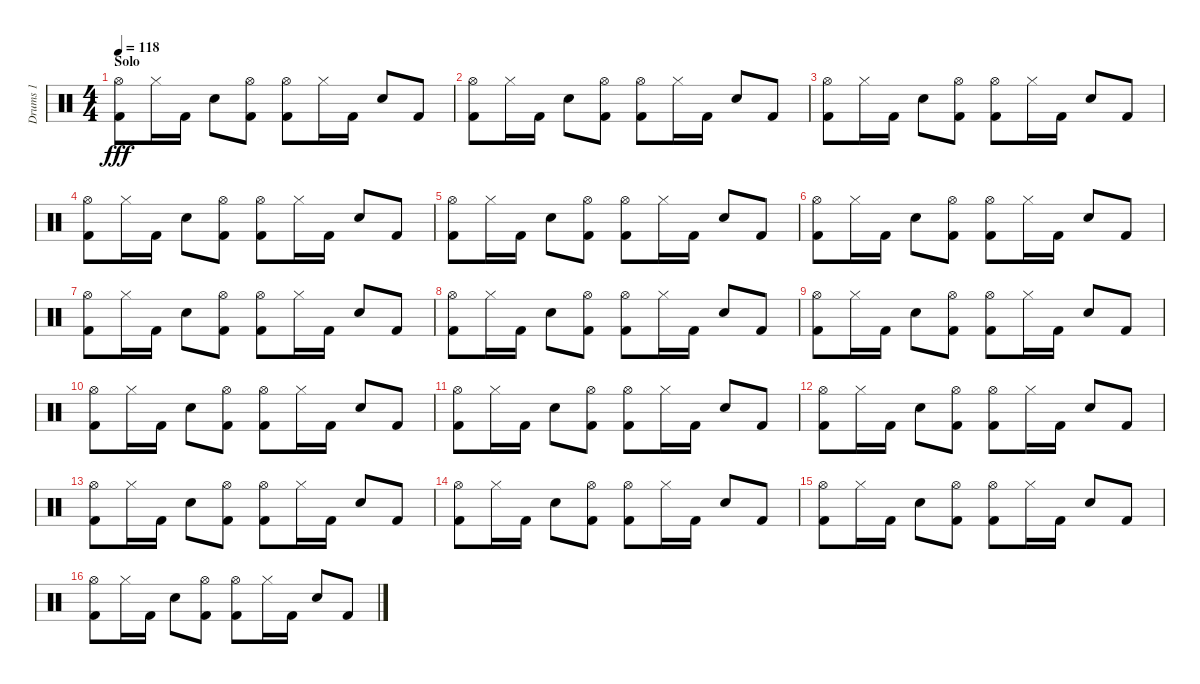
\track ("Drums 1" "Drums 1") {instrument percussion}
\staff {score}
\articulation defaults
\ts (4 4)
\section ("" "Solo")
\tempo 118
\clef neutral
\ks c
("Hi-Hat (open)" "Kick (hit) 2").8{dy fff volume 12 balance 8} "Hi-Hat (closed)".16 "Kick (hit) 2".16 "Electric Snare (hit)".8 ("Hi-Hat (open)" "Kick (hit) 2").8 ("Hi-Hat (open)" "Kick (hit) 2").8 "Hi-Hat (closed)".16 "Kick (hit) 2".16 "Electric Snare (hit)".8 "Kick (hit) 2".8 |
("Hi-Hat (open)" "Kick (hit) 2").8 "Hi-Hat (closed)".16 "Kick (hit) 2".16 "Electric Snare (hit)".8 ("Hi-Hat (open)" "Kick (hit) 2").8 ("Hi-Hat (open)" "Kick (hit) 2").8 "Hi-Hat (closed)".16 "Kick (hit) 2".16 "Electric Snare (hit)".8 "Kick (hit) 2".8 |
("Hi-Hat (open)" "Kick (hit) 2").8 "Hi-Hat (closed)".16 "Kick (hit) 2".16 "Electric Snare (hit)".8 ("Hi-Hat (open)" "Kick (hit) 2").8 ("Hi-Hat (open)" "Kick (hit) 2").8 "Hi-Hat (closed)".16 "Kick (hit) 2".16 "Electric Snare (hit)".8 "Kick (hit) 2".8 |
("Hi-Hat (open)" "Kick (hit) 2").8 "Hi-Hat (closed)".16 "Kick (hit) 2".16 "Electric Snare (hit)".8 ("Hi-Hat (open)" "Kick (hit) 2").8 ("Hi-Hat (open)" "Kick (hit) 2").8 "Hi-Hat (closed)".16 "Kick (hit) 2".16 "Electric Snare (hit)".8 "Kick (hit) 2".8 |
("Hi-Hat (open)" "Kick (hit) 2").8 "Hi-Hat (closed)".16 "Kick (hit) 2".16 "Electric Snare (hit)".8 ("Hi-Hat (open)" "Kick (hit) 2").8 ("Hi-Hat (open)" "Kick (hit) 2").8 "Hi-Hat (closed)".16 "Kick (hit) 2".16 "Electric Snare (hit)".8 "Kick (hit) 2".8 |
("Hi-Hat (open)" "Kick (hit) 2").8 "Hi-Hat (closed)".16 "Kick (hit) 2".16 "Electric Snare (hit)".8 ("Hi-Hat (open)" "Kick (hit) 2").8 ("Hi-Hat (open)" "Kick (hit) 2").8 "Hi-Hat (closed)".16 "Kick (hit) 2".16 "Electric Snare (hit)".8 "Kick (hit) 2".8 |
("Hi-Hat (open)" "Kick (hit) 2").8 "Hi-Hat (closed)".16 "Kick (hit) 2".16 "Electric Snare (hit)".8 ("Hi-Hat (open)" "Kick (hit) 2").8 ("Hi-Hat (open)" "Kick (hit) 2").8 "Hi-Hat (closed)".16 "Kick (hit) 2".16 "Electric Snare (hit)".8 "Kick (hit) 2".8 |
("Hi-Hat (open)" "Kick (hit) 2").8 "Hi-Hat (closed)".16 "Kick (hit) 2".16 "Electric Snare (hit)".8 ("Hi-Hat (open)" "Kick (hit) 2").8 ("Hi-Hat (open)" "Kick (hit) 2").8 "Hi-Hat (closed)".16 "Kick (hit) 2".16 "Electric Snare (hit)".8 "Kick (hit) 2".8 |
("Hi-Hat (open)" "Kick (hit) 2").8 "Hi-Hat (closed)".16 "Kick (hit) 2".16 "Electric Snare (hit)".8 ("Hi-Hat (open)" "Kick (hit) 2").8 ("Hi-Hat (open)" "Kick (hit) 2").8 "Hi-Hat (closed)".16 "Kick (hit) 2".16 "Electric Snare (hit)".8 "Kick (hit) 2".8 |
("Hi-Hat (open)" "Kick (hit) 2").8 "Hi-Hat (closed)".16 "Kick (hit) 2".16 "Electric Snare (hit)".8 ("Hi-Hat (open)" "Kick (hit) 2").8 ("Hi-Hat (open)" "Kick (hit) 2").8 "Hi-Hat (closed)".16 "Kick (hit) 2".16 "Electric Snare (hit)".8 "Kick (hit) 2".8 |
("Hi-Hat (open)" "Kick (hit) 2").8 "Hi-Hat (closed)".16 "Kick (hit) 2".16 "Electric Snare (hit)".8 ("Hi-Hat (open)" "Kick (hit) 2").8 ("Hi-Hat (open)" "Kick (hit) 2").8 "Hi-Hat (closed)".16 "Kick (hit) 2".16 "Electric Snare (hit)".8 "Kick (hit) 2".8 |
("Hi-Hat (open)" "Kick (hit) 2").8 "Hi-Hat (closed)".16 "Kick (hit) 2".16 "Electric Snare (hit)".8 ("Hi-Hat (open)" "Kick (hit) 2").8 ("Hi-Hat (open)" "Kick (hit) 2").8 "Hi-Hat (closed)".16 "Kick (hit) 2".16 "Electric Snare (hit)".8 "Kick (hit) 2".8 |
("Hi-Hat (open)" "Kick (hit) 2").8 "Hi-Hat (closed)".16 "Kick (hit) 2".16 "Electric Snare (hit)".8 ("Hi-Hat (open)" "Kick (hit) 2").8 ("Hi-Hat (open)" "Kick (hit) 2").8 "Hi-Hat (closed)".16 "Kick (hit) 2".16 "Electric Snare (hit)".8 "Kick (hit) 2".8 |
("Hi-Hat (open)" "Kick (hit) 2").8 "Hi-Hat (closed)".16 "Kick (hit) 2".16 "Electric Snare (hit)".8 ("Hi-Hat (open)" "Kick (hit) 2").8 ("Hi-Hat (open)" "Kick (hit) 2").8 "Hi-Hat (closed)".16 "Kick (hit) 2".16 "Electric Snare (hit)".8 "Kick (hit) 2".8 |
("Hi-Hat (open)" "Kick (hit) 2").8 "Hi-Hat (closed)".16 "Kick (hit) 2".16 "Electric Snare (hit)".8 ("Hi-Hat (open)" "Kick (hit) 2").8 ("Hi-Hat (open)" "Kick (hit) 2").8 "Hi-Hat (closed)".16 "Kick (hit) 2".16 "Electric Snare (hit)".8 "Kick (hit) 2".8 |
("Hi-Hat (open)" "Kick (hit) 2").8 "Hi-Hat (closed)".16 "Kick (hit) 2".16 "Electric Snare (hit)".8 ("Hi-Hat (open)" "Kick (hit) 2").8 ("Hi-Hat (open)" "Kick (hit) 2").8 "Hi-Hat (closed)".16 "Kick (hit) 2".16 "Electric Snare (hit)".8 "Kick (hit) 2".8
